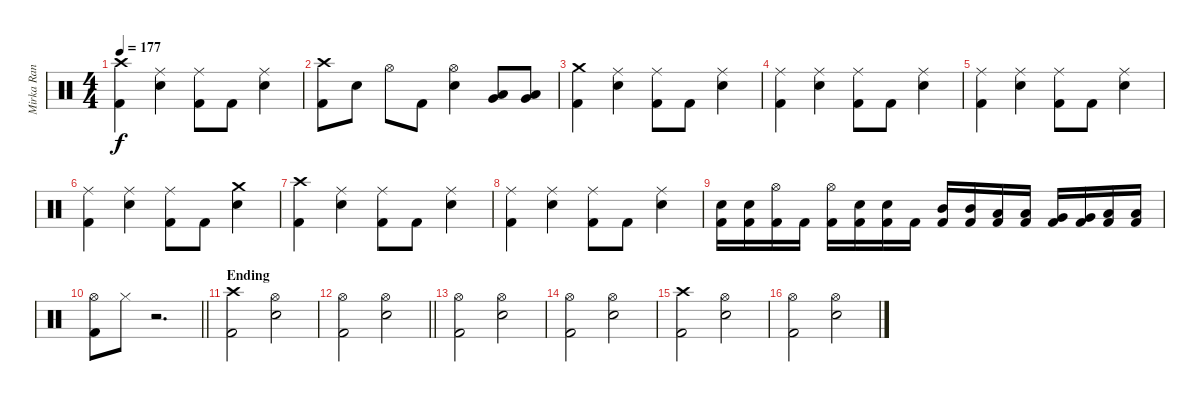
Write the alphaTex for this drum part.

\track (" Mirka Rantanen" " Mirka Ran") {instrument percussion}
\staff {score}
\articulation defaults
\ts (4 4)
\tempo 177
\clef neutral
\ks c
("Crash high (hit)" "Kick (hit) 2").4{dy f} ("Ride (middle)" "Electric Snare (hit)").4 ("Ride (middle)" "Kick (hit) 2").8 "Kick (hit) 2".8 ("Ride (middle)" "Electric Snare (hit)").4 |
("Crash high (hit)" "Kick (hit) 2").8 "Electric Snare (hit)".8 "Hi-Hat (open)".8 "Kick (hit) 2".8 ("Hi-Hat (open)" "Electric Snare (hit)").4 ("Very Low Tom (hit)" "Low Floor Tom (hit)").8 ("Very Low Tom (hit)" "Low Floor Tom (hit)").8 |
("Crash medium (hit)" "Kick (hit) 2").4 ("Ride (middle)" "Electric Snare (hit)").4 ("Ride (middle)" "Kick (hit) 2").8 "Kick (hit) 2".8 ("Ride (middle)" "Electric Snare (hit)").4 |
("Ride (middle)" "Kick (hit) 2").4 ("Ride (middle)" "Electric Snare (hit)").4 ("Ride (middle)" "Kick (hit) 2").8 "Kick (hit) 2".8 ("Ride (middle)" "Electric Snare (hit)").4 |
("Ride (middle)" "Kick (hit) 2").4 ("Ride (middle)" "Electric Snare (hit)").4 ("Ride (middle)" "Kick (hit) 2").8 "Kick (hit) 2".8 ("Ride (middle)" "Electric Snare (hit)").4 |
("Ride (middle)" "Kick (hit) 2").4 ("Ride (middle)" "Electric Snare (hit)").4 ("Ride (middle)" "Kick (hit) 2").8 "Kick (hit) 2".8 ("Crash medium (hit)" "Electric Snare (hit)").4 |
("Crash high (hit)" "Kick (hit) 2").4 ("Ride (middle)" "Electric Snare (hit)").4 ("Ride (middle)" "Kick (hit) 2").8 "Kick (hit) 2".8 ("Ride (middle)" "Electric Snare (hit)").4 |
("Ride (middle)" "Kick (hit) 2").4 ("Ride (middle)" "Electric Snare (hit)").4 ("Ride (middle)" "Kick (hit) 2").8 "Kick (hit) 2".8 ("Ride (middle)" "Electric Snare (hit)").4 |
("Electric Snare (hit)" "Kick (hit) 2").16 ("Electric Snare (hit)" "Kick (hit) 2").16 ("Hi-Hat (open)" "Kick (hit) 2").16 "Kick (hit) 2".16 ("Hi-Hat (open)" "Kick (hit) 2").16 ("Electric Snare (hit)" "Kick (hit) 2").16 ("Electric Snare (hit)" "Kick (hit) 2").16 "Kick (hit) 2".16 ("Mid Tom (hit)" "Kick (hit) 2").16 ("Mid Tom (hit)" "Kick (hit) 2").16 ("Low Tom (hit)" "Kick (hit) 2").16 ("Low Tom (hit)" "Kick (hit) 2").16 ("Very Low Tom (hit)" "Kick (hit) 2").16 ("Very Low Tom (hit)" "Kick (hit) 2").16 ("Low Floor Tom (hit)" "Kick (hit) 2").16 ("Low Floor Tom (hit)" "Kick (hit) 2").16 |
\barLineRight lightlight
("Hi-Hat (open)" "Kick (hit) 2").8 "Hi-Hat (closed)".8 r.2{d} |
\section ("" "Ending")
("Crash high (hit)" "Kick (hit) 2").2 ("Hi-Hat (open)" "Electric Snare (hit)").2 |
\barLineRight lightlight
("Hi-Hat (open)" "Kick (hit) 2").2 ("Hi-Hat (open)" "Electric Snare (hit)").2 |
\section ("" "")
("Hi-Hat (open)" "Kick (hit) 2").2 ("Hi-Hat (open)" "Electric Snare (hit)").2 |
("Hi-Hat (open)" "Kick (hit) 2").2 ("Hi-Hat (open)" "Electric Snare (hit)").2 |
("Crash high (hit)" "Kick (hit) 2").2 ("Hi-Hat (open)" "Electric Snare (hit)").2 |
("Hi-Hat (open)" "Kick (hit) 2").2 ("Hi-Hat (open)" "Electric Snare (hit)").2
